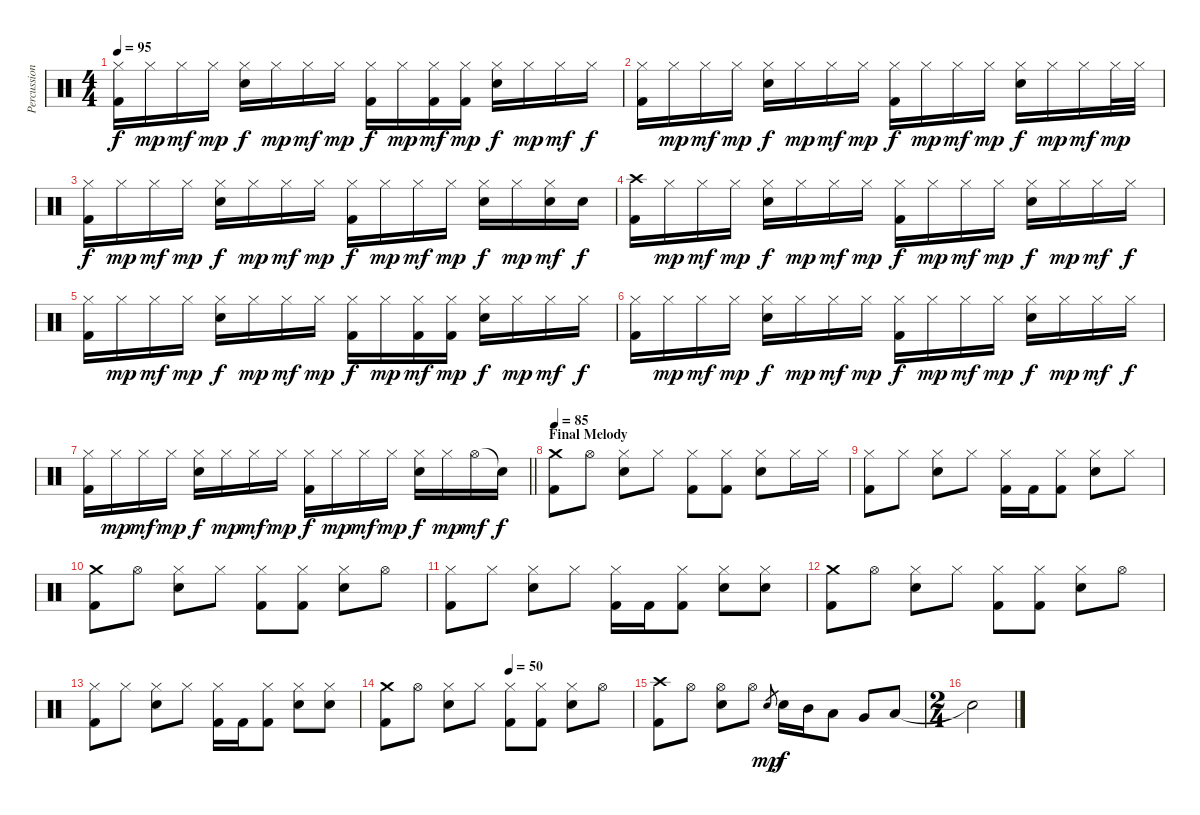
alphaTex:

\track ("Percussion" "Percussion") {instrument percussion}
\staff {score}
\articulation defaults
\ts (4 4)
\tempo 95
\clef neutral
\ks c
("Hi-Hat (closed)" "Kick (hit) 2").16{dy f} "Hi-Hat (closed)".16{dy mp} "Hi-Hat (closed)".16{dy mf} "Hi-Hat (closed)".16{dy mp} ("Hi-Hat (closed)" "Snare (hit) 2").16{dy f} "Hi-Hat (closed)".16{dy mp} "Hi-Hat (closed)".16{dy mf} "Hi-Hat (closed)".16{dy mp} ("Hi-Hat (closed)" "Kick (hit) 2").16{dy f} "Hi-Hat (closed)".16{dy mp} ("Hi-Hat (closed)" "Kick (hit) 2").16{dy mf} ("Hi-Hat (closed)" "Kick (hit) 2").16{dy mp} ("Hi-Hat (closed)" "Snare (hit) 2").16{dy f} "Hi-Hat (closed)".16{dy mp} "Hi-Hat (closed)".16{dy mf} "Hi-Hat (closed)".16{dy f} |
("Hi-Hat (closed)" "Kick (hit) 2").16 "Hi-Hat (closed)".16{dy mp} "Hi-Hat (closed)".16{dy mf} "Hi-Hat (closed)".16{dy mp} ("Hi-Hat (closed)" "Snare (hit) 2").16{dy f} "Hi-Hat (closed)".16{dy mp} "Hi-Hat (closed)".16{dy mf} "Hi-Hat (closed)".16{dy mp} ("Hi-Hat (closed)" "Kick (hit) 2").16{dy f} "Hi-Hat (closed)".16{dy mp} "Hi-Hat (closed)".16{dy mf} "Hi-Hat (closed)".16{dy mp} ("Hi-Hat (closed)" "Snare (hit) 2").16{dy f} "Hi-Hat (closed)".16{dy mp} "Hi-Hat (closed)".16{dy mf} "Hi-Hat (closed)".32{dy mp} "Hi-Hat (closed)".32 |
("Hi-Hat (closed)" "Kick (hit) 2").16{dy f} "Hi-Hat (closed)".16{dy mp} "Hi-Hat (closed)".16{dy mf} "Hi-Hat (closed)".16{dy mp} ("Hi-Hat (closed)" "Snare (hit) 2").16{dy f} "Hi-Hat (closed)".16{dy mp} "Hi-Hat (closed)".16{dy mf} "Hi-Hat (closed)".16{dy mp} ("Hi-Hat (closed)" "Kick (hit) 2").16{dy f} "Hi-Hat (closed)".16{dy mp} "Hi-Hat (closed)".16{dy mf} "Hi-Hat (closed)".16{dy mp} ("Hi-Hat (closed)" "Snare (hit) 2").16{dy f} "Hi-Hat (closed)".16{dy mp} ("Hi-Hat (closed)" "Snare (hit) 2").16{dy mf} "Snare (hit) 2".16{dy f} |
("Crash high (hit)" "Kick (hit) 2").16 "Hi-Hat (closed)".16{dy mp} "Hi-Hat (closed)".16{dy mf} "Hi-Hat (closed)".16{dy mp} ("Hi-Hat (closed)" "Snare (hit) 2").16{dy f} "Hi-Hat (closed)".16{dy mp} "Hi-Hat (closed)".16{dy mf} "Hi-Hat (closed)".16{dy mp} ("Hi-Hat (closed)" "Kick (hit) 2").16{dy f} "Hi-Hat (closed)".16{dy mp} "Hi-Hat (closed)".16{dy mf} "Hi-Hat (closed)".16{dy mp} ("Hi-Hat (closed)" "Snare (hit) 2").16{dy f} "Hi-Hat (closed)".16{dy mp} "Hi-Hat (closed)".16{dy mf} "Hi-Hat (closed)".16{dy f} |
("Hi-Hat (closed)" "Kick (hit) 2").16 "Hi-Hat (closed)".16{dy mp} "Hi-Hat (closed)".16{dy mf} "Hi-Hat (closed)".16{dy mp} ("Hi-Hat (closed)" "Snare (hit) 2").16{dy f} "Hi-Hat (closed)".16{dy mp} "Hi-Hat (closed)".16{dy mf} "Hi-Hat (closed)".16{dy mp} ("Hi-Hat (closed)" "Kick (hit) 2").16{dy f} "Hi-Hat (closed)".16{dy mp} ("Hi-Hat (closed)" "Kick (hit) 2").16{dy mf} ("Hi-Hat (closed)" "Kick (hit) 2").16{dy mp} ("Hi-Hat (closed)" "Snare (hit) 2").16{dy f} "Hi-Hat (closed)".16{dy mp} "Hi-Hat (closed)".16{dy mf} "Hi-Hat (closed)".16{dy f} |
("Hi-Hat (closed)" "Kick (hit) 2").16 "Hi-Hat (closed)".16{dy mp} "Hi-Hat (closed)".16{dy mf} "Hi-Hat (closed)".16{dy mp} ("Hi-Hat (closed)" "Snare (hit) 2").16{dy f} "Hi-Hat (closed)".16{dy mp} "Hi-Hat (closed)".16{dy mf} "Hi-Hat (closed)".16{dy mp} ("Hi-Hat (closed)" "Kick (hit) 2").16{dy f} "Hi-Hat (closed)".16{dy mp} "Hi-Hat (closed)".16{dy mf} "Hi-Hat (closed)".16{dy mp} ("Hi-Hat (closed)" "Snare (hit) 2").16{dy f} "Hi-Hat (closed)".16{dy mp} "Hi-Hat (closed)".16{dy mf} "Hi-Hat (closed)".16{dy f} |
\barLineRight lightlight
("Hi-Hat (closed)" "Kick (hit) 2").16 "Hi-Hat (closed)".16{dy mp} "Hi-Hat (closed)".16{dy mf} "Hi-Hat (closed)".16{dy mp} ("Hi-Hat (closed)" "Snare (hit) 2").16{dy f} "Hi-Hat (closed)".16{dy mp} "Hi-Hat (closed)".16{dy mf} "Hi-Hat (closed)".16{dy mp} ("Hi-Hat (closed)" "Kick (hit) 2").16{dy f} "Hi-Hat (closed)".16{dy mp} "Hi-Hat (closed)".16{dy mf} "Hi-Hat (closed)".16{dy mp} ("Hi-Hat (closed)" "Snare (hit) 2").16{dy f} "Hi-Hat (closed)".16{dy mp} "Hi-Hat (open)".16{dy mf} "Snare (hit)"{t}.16{dy f} |
\section ("" "Final Melody")
\tempo 85
("Crash medium (hit)" "Kick (hit) 2").8 "Hi-Hat (open)".8 ("Hi-Hat (closed)" "Snare (hit) 2").8 "Hi-Hat (closed)".8 ("Hi-Hat (closed)" "Kick (hit) 2").8 ("Hi-Hat (closed)" "Kick (hit) 2").8 ("Hi-Hat (closed)" "Snare (hit) 2").8 "Hi-Hat (closed)".16 "Hi-Hat (closed)".16 |
("Hi-Hat (closed)" "Kick (hit) 2").8 "Hi-Hat (closed)".8 ("Hi-Hat (closed)" "Snare (hit) 2").8 "Hi-Hat (closed)".8 ("Hi-Hat (closed)" "Kick (hit) 2").16 "Kick (hit) 2".16 ("Hi-Hat (closed)" "Kick (hit) 2").8 ("Hi-Hat (closed)" "Snare (hit) 2").8 "Hi-Hat (closed)".8 |
("Crash medium (hit)" "Kick (hit) 2").8 "Hi-Hat (open)".8 ("Hi-Hat (closed)" "Snare (hit) 2").8 "Hi-Hat (closed)".8 ("Hi-Hat (closed)" "Kick (hit) 2").8 ("Hi-Hat (closed)" "Kick (hit) 2").8 ("Hi-Hat (closed)" "Snare (hit) 2").8 "Hi-Hat (open)".8 |
("Hi-Hat (closed)" "Kick (hit) 2").8 "Hi-Hat (closed)".8 ("Hi-Hat (closed)" "Snare (hit) 2").8 "Hi-Hat (closed)".8 ("Hi-Hat (closed)" "Kick (hit) 2").16 "Kick (hit) 2".16 ("Hi-Hat (closed)" "Kick (hit) 2").8 ("Hi-Hat (closed)" "Snare (hit) 2").8 ("Hi-Hat (closed)" "Snare (hit) 2").8 |
("Crash medium (hit)" "Kick (hit) 2").8 "Hi-Hat (open)".8 ("Hi-Hat (closed)" "Snare (hit) 2").8 "Hi-Hat (closed)".8 ("Hi-Hat (closed)" "Kick (hit) 2").8 ("Hi-Hat (closed)" "Kick (hit) 2").8 ("Hi-Hat (closed)" "Snare (hit) 2").8 "Hi-Hat (open)".8 |
("Hi-Hat (closed)" "Kick (hit) 2").8 "Hi-Hat (closed)".8 ("Hi-Hat (closed)" "Snare (hit) 2").8 "Hi-Hat (closed)".8 ("Hi-Hat (closed)" "Kick (hit) 2").16 "Kick (hit) 2".16 ("Hi-Hat (closed)" "Kick (hit) 2").8 ("Hi-Hat (closed)" "Snare (hit) 2").8 ("Hi-Hat (closed)" "Snare (hit) 2").8 |
\tempo (50 0.5)
("Crash medium (hit)" "Kick (hit) 2").8 "Hi-Hat (open)".8 ("Hi-Hat (closed)" "Snare (hit) 2").8 "Hi-Hat (closed)".8 ("Hi-Hat (closed)" "Kick (hit) 2").8 ("Hi-Hat (closed)" "Kick (hit) 2").8 ("Hi-Hat (closed)" "Snare (hit) 2").8 "Hi-Hat (open)".8 |
("Crash high (hit)" "Kick (hit) 2").8 "Hi-Hat (open)".8 ("Hi-Hat (open)" "Snare (hit) 2").8 "Hi-Hat (open)".8 "Snare (hit) 2".8{gr dy mp} "Snare (hit) 2".16{dy f} "Mid Tom (hit)".16 "Low Tom (hit)".8 "Very Low Tom (hit)".8 "Low Floor Tom (hit)".8 |
\ts (2 4)
"Snare (hit)"{t}.2
